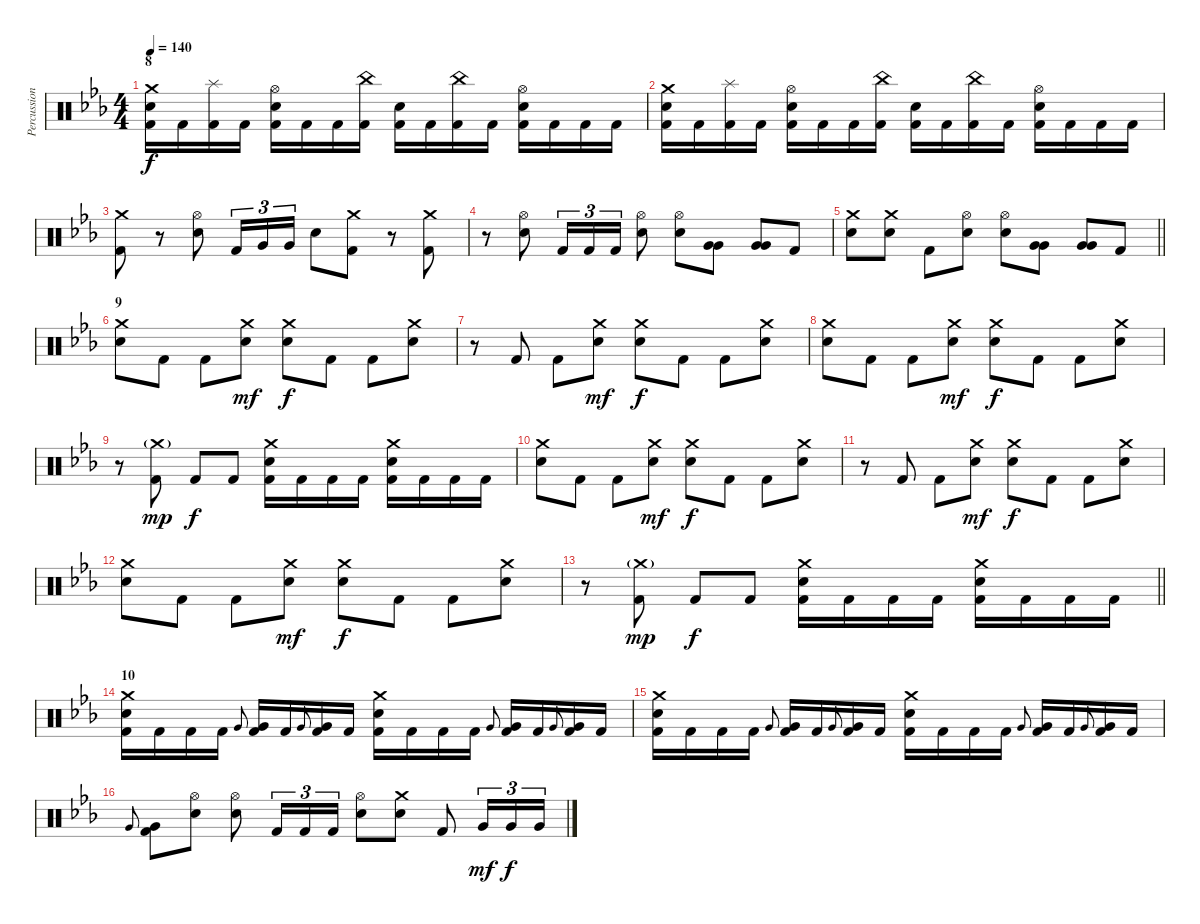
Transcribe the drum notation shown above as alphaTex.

\track ("Percussion" "Percussion") {instrument percussion}
\staff {score}
\articulation defaults
\ts (4 4)
\section ("" "8")
\tempo 140
\clef neutral
\ks cminor
("Crash medium (hit)" "Snare (hit) 2" "Kick (hit) 2").16{dy f} "Kick (hit) 2".16 ("Splash (hit)" "Kick (hit) 2").16 "Kick (hit) 2".16 ("Hi-Hat (open)" "Snare (hit) 2" "Kick (hit) 2").16 "Kick (hit) 2".16 "Kick (hit) 2".16 ("China (hit)" "Kick (hit) 2").16 ("Snare (hit) 2" "Kick (hit) 2").16 "Kick (hit) 2".16 ("China (hit)" "Kick (hit) 2").16 "Kick (hit) 2".16 ("Hi-Hat (open)" "Snare (hit) 2" "Kick (hit) 2").16 "Kick (hit) 2".16 "Kick (hit) 2".16 "Kick (hit) 2".16 |
("Crash medium (hit)" "Snare (hit) 2" "Kick (hit) 2").16 "Kick (hit) 2".16 ("Splash (hit)" "Kick (hit) 2").16 "Kick (hit) 2".16 ("Hi-Hat (open)" "Snare (hit) 2" "Kick (hit) 2").16 "Kick (hit) 2".16 "Kick (hit) 2".16 ("China (hit)" "Kick (hit) 2").16 ("Snare (hit) 2" "Kick (hit) 2").16 "Kick (hit) 2".16 ("China (hit)" "Kick (hit) 2").16 "Kick (hit) 2".16 ("Hi-Hat (open)" "Snare (hit) 2" "Kick (hit) 2").16 "Kick (hit) 2".16 "Kick (hit) 2".16 "Kick (hit) 2".16 |
("Crash medium (hit)" "Kick (hit) 2").8 r.8 ("Hi-Hat (open)" "Snare (hit) 2").8 "Kick (hit) 2".16{tu (3 2)} "Very Low Tom (hit)".16{tu (3 2)} "Very Low Tom (hit)".16{tu (3 2)} "Snare (hit) 2".8 ("Crash medium (hit)" "Kick (hit) 2").8 r.8 ("Crash medium (hit)" "Kick (hit) 2").8 |
r.8 ("Hi-Hat (open)" "Snare (hit) 2").8 "Kick (hit) 2".16{tu (3 2)} "Kick (hit) 2".16{tu (3 2)} "Kick (hit) 2".16{tu (3 2)} ("Hi-Hat (open)" "Snare (hit) 2").8 ("Hi-Hat (open)" "Snare (hit) 2").8 ("Very Low Tom (hit)" "Very Low Tom (hit)").8{bu 60} ("Very Low Tom (hit)" "Very Low Tom (hit)").8{bu 60} "Kick (hit) 2".8 |
\barLineRight lightlight
("Crash medium (hit)" "Snare (hit) 2").8 ("Crash medium (hit)" "Snare (hit) 2").8 "Kick (hit) 2".8 ("Hi-Hat (open)" "Snare (hit) 2").8 ("Hi-Hat (open)" "Snare (hit) 2").8 ("Very Low Tom (hit)" "Very Low Tom (hit)").8{bu 60} ("Very Low Tom (hit)" "Very Low Tom (hit)").8{bu 60} "Kick (hit) 2".8 |
\section ("" "9")
("Crash medium (hit)" "Snare (hit) 2").8 "Kick (hit) 2".8 "Kick (hit) 2".8 ("Crash medium (hit)" "Snare (hit) 2").8{dy mf} ("Crash medium (hit)" "Snare (hit) 2").8{dy f} "Kick (hit) 2".8 "Kick (hit) 2".8 ("Crash medium (hit)" "Snare (hit) 2").8 |
r.8 "Kick (hit) 2".8 "Kick (hit) 2".8 ("Crash medium (hit)" "Snare (hit) 2").8{dy mf} ("Crash medium (hit)" "Snare (hit) 2").8{dy f} "Kick (hit) 2".8 "Kick (hit) 2".8 ("Crash medium (hit)" "Snare (hit) 2").8 |
("Crash medium (hit)" "Snare (hit) 2").8 "Kick (hit) 2".8 "Kick (hit) 2".8 ("Crash medium (hit)" "Snare (hit) 2").8{dy mf} ("Crash medium (hit)" "Snare (hit) 2").8{dy f} "Kick (hit) 2".8 "Kick (hit) 2".8 ("Crash medium (hit)" "Snare (hit) 2").8 |
r.8 ("Crash medium (hit)"{g} "Kick (hit) 2").8{dy mp} "Kick (hit) 2".8{dy f} "Kick (hit) 2".8 ("Crash medium (hit)" "Snare (hit) 2" "Kick (hit) 2").16 "Kick (hit) 2".16 "Kick (hit) 2".16 "Kick (hit) 2".16 ("Crash medium (hit)" "Snare (hit) 2" "Kick (hit) 2").16 "Kick (hit) 2".16 "Kick (hit) 2".16 "Kick (hit) 2".16 |
("Crash medium (hit)" "Snare (hit) 2").8 "Kick (hit) 2".8 "Kick (hit) 2".8 ("Crash medium (hit)" "Snare (hit) 2").8{dy mf} ("Crash medium (hit)" "Snare (hit) 2").8{dy f} "Kick (hit) 2".8 "Kick (hit) 2".8 ("Crash medium (hit)" "Snare (hit) 2").8 |
r.8 "Kick (hit) 2".8 "Kick (hit) 2".8 ("Crash medium (hit)" "Snare (hit) 2").8{dy mf} ("Crash medium (hit)" "Snare (hit) 2").8{dy f} "Kick (hit) 2".8 "Kick (hit) 2".8 ("Crash medium (hit)" "Snare (hit) 2").8 |
("Crash medium (hit)" "Snare (hit) 2").8 "Kick (hit) 2".8 "Kick (hit) 2".8 ("Crash medium (hit)" "Snare (hit) 2").8{dy mf} ("Crash medium (hit)" "Snare (hit) 2").8{dy f} "Kick (hit) 2".8 "Kick (hit) 2".8 ("Crash medium (hit)" "Snare (hit) 2").8 |
\barLineRight lightlight
r.8 ("Crash medium (hit)"{g} "Kick (hit) 2").8{dy mp} "Kick (hit) 2".8{dy f} "Kick (hit) 2".8 ("Crash medium (hit)" "Snare (hit) 2" "Kick (hit) 2").16 "Kick (hit) 2".16 "Kick (hit) 2".16 "Kick (hit) 2".16 ("Crash medium (hit)" "Snare (hit) 2" "Kick (hit) 2").16 "Kick (hit) 2".16 "Kick (hit) 2".16 "Kick (hit) 2".16 |
\section ("" "10")
("Crash medium (hit)" "Snare (hit) 2" "Kick (hit) 2").16 "Kick (hit) 2".16 "Kick (hit) 2".16 "Kick (hit) 2".16 "Very Low Tom (hit)".8{gr onbeat} ("Very Low Tom (hit)" "Kick (hit) 2").16 "Kick (hit) 2".16 "Very Low Tom (hit)".8{gr onbeat} ("Very Low Tom (hit)" "Kick (hit) 2").16 "Kick (hit) 2".16 ("Crash medium (hit)" "Snare (hit) 2" "Kick (hit) 2").16 "Kick (hit) 2".16 "Kick (hit) 2".16 "Kick (hit) 2".16 "Very Low Tom (hit)".8{gr onbeat} ("Very Low Tom (hit)" "Kick (hit) 2").16 "Kick (hit) 2".16 "Very Low Tom (hit)".8{gr onbeat} ("Very Low Tom (hit)" "Kick (hit) 2").16 "Kick (hit) 2".16 |
("Crash medium (hit)" "Snare (hit) 2" "Kick (hit) 2").16 "Kick (hit) 2".16 "Kick (hit) 2".16 "Kick (hit) 2".16 "Very Low Tom (hit)".8{gr onbeat} ("Very Low Tom (hit)" "Kick (hit) 2").16 "Kick (hit) 2".16 "Very Low Tom (hit)".8{gr onbeat} ("Very Low Tom (hit)" "Kick (hit) 2").16 "Kick (hit) 2".16 ("Crash medium (hit)" "Snare (hit) 2" "Kick (hit) 2").16 "Kick (hit) 2".16 "Kick (hit) 2".16 "Kick (hit) 2".16 "Very Low Tom (hit)".8{gr onbeat} ("Very Low Tom (hit)" "Kick (hit) 2").16 "Kick (hit) 2".16 "Very Low Tom (hit)".8{gr onbeat} ("Very Low Tom (hit)" "Kick (hit) 2").16 "Kick (hit) 2".16 |
"Very Low Tom (hit)".8{gr onbeat} ("Very Low Tom (hit)" "Kick (hit) 2").8 ("Hi-Hat (open)" "Snare (hit) 2").8 ("Hi-Hat (open)" "Snare (hit) 2").8 "Kick (hit) 2".16{tu (3 2)} "Kick (hit) 2".16{tu (3 2)} "Kick (hit) 2".16{tu (3 2)} ("Hi-Hat (open)" "Snare (hit) 2").8 ("Crash medium (hit)" "Snare (hit) 2").8 "Kick (hit) 2".8 "Very Low Tom (hit)".16{tu (3 2) dy mf} "Very Low Tom (hit)".16{tu (3 2) dy f} "Very Low Tom (hit)".16{tu (3 2)}
